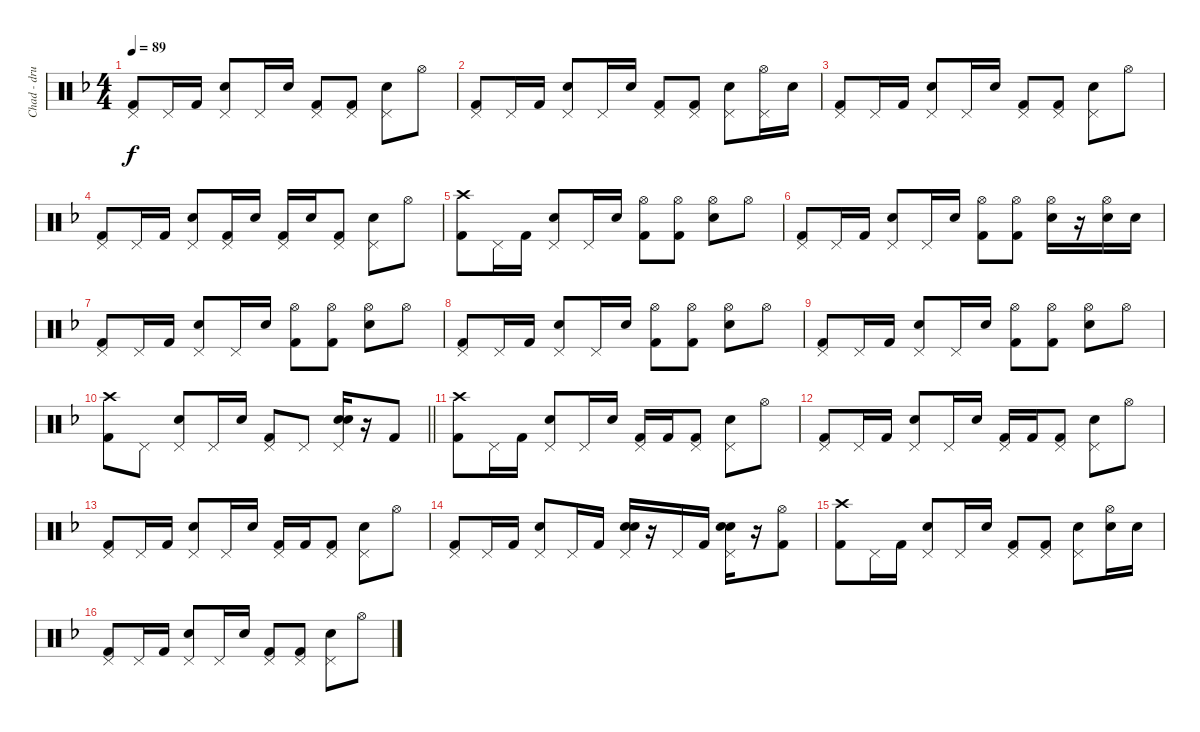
\track ("Chad - drums" "Chad - dru") {instrument percussion}
\staff {score}
\articulation defaults
\ts (4 4)
\tempo 89
\clef neutral
\ks f
("Pedal Hi-Hat (hit)" "Kick (hit) 2").8{dy f} "Pedal Hi-Hat (hit)".16 "Kick (hit) 2".16 ("Pedal Hi-Hat (hit)" "Electric Snare (hit)").8 "Pedal Hi-Hat (hit)".16 "Electric Snare (hit)".16 ("Pedal Hi-Hat (hit)" "Kick (hit) 2").8 ("Pedal Hi-Hat (hit)" "Kick (hit) 2").8 ("Pedal Hi-Hat (hit)" "Electric Snare (hit)").8 "Hi-Hat (open)".8 |
("Pedal Hi-Hat (hit)" "Kick (hit) 2").8 "Pedal Hi-Hat (hit)".16 "Kick (hit) 2".16 ("Pedal Hi-Hat (hit)" "Electric Snare (hit)").8 "Pedal Hi-Hat (hit)".16 "Electric Snare (hit)".16 ("Pedal Hi-Hat (hit)" "Kick (hit) 2").8 ("Pedal Hi-Hat (hit)" "Kick (hit) 2").8 ("Pedal Hi-Hat (hit)" "Electric Snare (hit)").8 ("Hi-Hat (open)" "Pedal Hi-Hat (hit)").16 "Electric Snare (hit)".16 |
("Pedal Hi-Hat (hit)" "Kick (hit) 2").8 "Pedal Hi-Hat (hit)".16 "Kick (hit) 2".16 ("Pedal Hi-Hat (hit)" "Electric Snare (hit)").8 "Pedal Hi-Hat (hit)".16 "Electric Snare (hit)".16 ("Pedal Hi-Hat (hit)" "Kick (hit) 2").8 ("Pedal Hi-Hat (hit)" "Kick (hit) 2").8 ("Pedal Hi-Hat (hit)" "Electric Snare (hit)").8 "Hi-Hat (open)".8 |
("Pedal Hi-Hat (hit)" "Kick (hit) 2").8 "Pedal Hi-Hat (hit)".16 "Kick (hit) 2".16 ("Pedal Hi-Hat (hit)" "Electric Snare (hit)").8 ("Pedal Hi-Hat (hit)" "Kick (hit) 2").16 "Electric Snare (hit)".16 ("Pedal Hi-Hat (hit)" "Kick (hit) 2").16 "Electric Snare (hit)".16 ("Pedal Hi-Hat (hit)" "Kick (hit) 2").8 ("Pedal Hi-Hat (hit)" "Electric Snare (hit)").8 "Hi-Hat (open)".8 |
("Crash high (hit)" "Kick (hit) 2").8 "Pedal Hi-Hat (hit)".16 "Kick (hit) 2".16 ("Pedal Hi-Hat (hit)" "Electric Snare (hit)").8 "Pedal Hi-Hat (hit)".16 "Electric Snare (hit)".16 ("Hi-Hat (open)" "Kick (hit) 2").8 ("Hi-Hat (open)" "Kick (hit) 2").8 ("Hi-Hat (open)" "Electric Snare (hit)").8 "Hi-Hat (open)".8 |
("Pedal Hi-Hat (hit)" "Kick (hit) 2").8 "Pedal Hi-Hat (hit)".16 "Kick (hit) 2".16 ("Pedal Hi-Hat (hit)" "Electric Snare (hit)").8 "Pedal Hi-Hat (hit)".16 "Electric Snare (hit)".16 ("Hi-Hat (open)" "Kick (hit) 2").8 ("Hi-Hat (open)" "Kick (hit) 2").8 ("Hi-Hat (open)" "Electric Snare (hit)").16 r.16 ("Hi-Hat (open)" "Electric Snare (hit)").16 "Electric Snare (hit)".16 |
("Pedal Hi-Hat (hit)" "Kick (hit) 2").8 "Pedal Hi-Hat (hit)".16 "Kick (hit) 2".16 ("Pedal Hi-Hat (hit)" "Electric Snare (hit)").8 "Pedal Hi-Hat (hit)".16 "Electric Snare (hit)".16 ("Hi-Hat (open)" "Kick (hit) 2").8 ("Hi-Hat (open)" "Kick (hit) 2").8 ("Hi-Hat (open)" "Electric Snare (hit)").8 "Hi-Hat (open)".8 |
("Pedal Hi-Hat (hit)" "Kick (hit) 2").8 "Pedal Hi-Hat (hit)".16 "Kick (hit) 2".16 ("Pedal Hi-Hat (hit)" "Electric Snare (hit)").8 "Pedal Hi-Hat (hit)".16 "Electric Snare (hit)".16 ("Hi-Hat (open)" "Kick (hit) 2").8 ("Hi-Hat (open)" "Kick (hit) 2").8 ("Hi-Hat (open)" "Electric Snare (hit)").8 "Hi-Hat (open)".8 |
("Pedal Hi-Hat (hit)" "Kick (hit) 2").8 "Pedal Hi-Hat (hit)".16 "Kick (hit) 2".16 ("Pedal Hi-Hat (hit)" "Electric Snare (hit)").8 "Pedal Hi-Hat (hit)".16 "Electric Snare (hit)".16 ("Hi-Hat (open)" "Kick (hit) 2").8 ("Hi-Hat (open)" "Kick (hit) 2").8 ("Hi-Hat (open)" "Electric Snare (hit)").8 "Hi-Hat (open)".8 |
\barLineRight lightlight
("Crash high (hit)" "Kick (hit) 2").8 "Pedal Hi-Hat (hit)".8 ("Pedal Hi-Hat (hit)" "Electric Snare (hit)").8 "Pedal Hi-Hat (hit)".16 "Electric Snare (hit)".16 ("Pedal Hi-Hat (hit)" "Kick (hit) 2").8 "Pedal Hi-Hat (hit)".8 ("Pedal Hi-Hat (hit)" "Electric Snare (hit)" "Electric Snare (hit)").16 r.16 "Kick (hit) 2".8 |
("Crash high (hit)" "Kick (hit) 2").8 "Pedal Hi-Hat (hit)".16 "Kick (hit) 2".16 ("Pedal Hi-Hat (hit)" "Electric Snare (hit)").8 "Pedal Hi-Hat (hit)".16 "Electric Snare (hit)".16 ("Pedal Hi-Hat (hit)" "Kick (hit) 2").16 "Kick (hit) 2".16 ("Pedal Hi-Hat (hit)" "Kick (hit) 2").8 ("Pedal Hi-Hat (hit)" "Electric Snare (hit)").8 "Hi-Hat (open)".8 |
("Pedal Hi-Hat (hit)" "Kick (hit) 2").8 "Pedal Hi-Hat (hit)".16 "Kick (hit) 2".16 ("Pedal Hi-Hat (hit)" "Electric Snare (hit)").8 "Pedal Hi-Hat (hit)".16 "Electric Snare (hit)".16 ("Pedal Hi-Hat (hit)" "Kick (hit) 2").16 "Kick (hit) 2".16 ("Pedal Hi-Hat (hit)" "Kick (hit) 2").8 ("Pedal Hi-Hat (hit)" "Electric Snare (hit)").8 "Hi-Hat (open)".8 |
("Pedal Hi-Hat (hit)" "Kick (hit) 2").8 "Pedal Hi-Hat (hit)".16 "Kick (hit) 2".16 ("Pedal Hi-Hat (hit)" "Electric Snare (hit)").8 "Pedal Hi-Hat (hit)".16 "Electric Snare (hit)".16 ("Pedal Hi-Hat (hit)" "Kick (hit) 2").16 "Kick (hit) 2".16 ("Pedal Hi-Hat (hit)" "Kick (hit) 2").8 ("Pedal Hi-Hat (hit)" "Electric Snare (hit)").8 "Hi-Hat (open)".8 |
("Pedal Hi-Hat (hit)" "Kick (hit) 2").8 "Pedal Hi-Hat (hit)".16 "Kick (hit) 2".16 ("Pedal Hi-Hat (hit)" "Electric Snare (hit)").8 "Pedal Hi-Hat (hit)".16 "Kick (hit) 2".16 ("Pedal Hi-Hat (hit)" "Electric Snare (hit)" "Electric Snare (hit)").16 r.16 "Pedal Hi-Hat (hit)".16 "Kick (hit) 2".16 ("Pedal Hi-Hat (hit)" "Electric Snare (hit)" "Electric Snare (hit)").16 r.16 ("Hi-Hat (open)" "Kick (hit) 2").8 |
("Crash high (hit)" "Kick (hit) 2").8 "Pedal Hi-Hat (hit)".16 "Kick (hit) 2".16 ("Pedal Hi-Hat (hit)" "Electric Snare (hit)").8 "Pedal Hi-Hat (hit)".16 "Electric Snare (hit)".16 ("Pedal Hi-Hat (hit)" "Kick (hit) 2").8 ("Pedal Hi-Hat (hit)" "Kick (hit) 2").8 ("Pedal Hi-Hat (hit)" "Electric Snare (hit)").8 ("Hi-Hat (open)" "Electric Snare (hit)").16 "Electric Snare (hit)".16 |
("Pedal Hi-Hat (hit)" "Kick (hit) 2").8 "Pedal Hi-Hat (hit)".16 "Kick (hit) 2".16 ("Pedal Hi-Hat (hit)" "Electric Snare (hit)").8 "Pedal Hi-Hat (hit)".16 "Electric Snare (hit)".16 ("Pedal Hi-Hat (hit)" "Kick (hit) 2").8 ("Pedal Hi-Hat (hit)" "Kick (hit) 2").8 ("Pedal Hi-Hat (hit)" "Electric Snare (hit)").8 "Hi-Hat (open)".8
